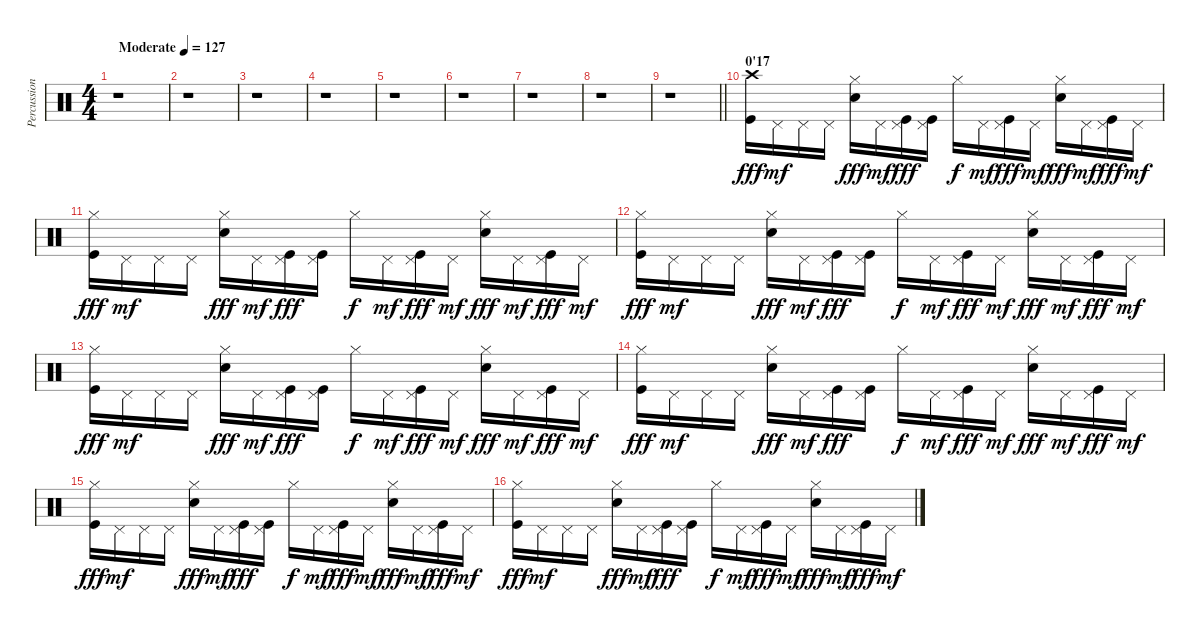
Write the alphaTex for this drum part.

\track ("Percussions" "Percussion") {instrument percussion}
\staff {score}
\articulation defaults
\ts (4 4)
\tempo (127 "Moderate")
\clef neutral
\ks c
r.1{dy fff} |
r.1 |
r.1 |
r.1 |
r.1 |
r.1 |
r.1 |
r.1 |
\barLineRight lightlight
r.1 |
\section ("" "0'17")
("Crash high (hit)" "Kick (hit)").16 "Pedal Hi-Hat (hit)".16{dy mf} "Pedal Hi-Hat (hit)".16 "Pedal Hi-Hat (hit)".16 ("Hi-Hat (closed)" "Electric Snare (hit)").16{dy fff} "Pedal Hi-Hat (hit)".16{dy mf} ("Pedal Hi-Hat (hit)" "Kick (hit)").16{dy fff} ("Pedal Hi-Hat (hit)" "Kick (hit)").16 "Hi-Hat (closed)".16{dy f} "Pedal Hi-Hat (hit)".16{dy mf} ("Pedal Hi-Hat (hit)" "Kick (hit)").16{dy fff} "Pedal Hi-Hat (hit)".16{dy mf} ("Hi-Hat (closed)" "Electric Snare (hit)").16{dy fff} "Pedal Hi-Hat (hit)".16{dy mf} ("Pedal Hi-Hat (hit)" "Kick (hit)").16{dy fff} "Pedal Hi-Hat (hit)".16{dy mf} |
("Hi-Hat (closed)" "Kick (hit)").16{dy fff} "Pedal Hi-Hat (hit)".16{dy mf} "Pedal Hi-Hat (hit)".16 "Pedal Hi-Hat (hit)".16 ("Hi-Hat (closed)" "Electric Snare (hit)").16{dy fff} "Pedal Hi-Hat (hit)".16{dy mf} ("Pedal Hi-Hat (hit)" "Kick (hit)").16{dy fff} ("Pedal Hi-Hat (hit)" "Kick (hit)").16 "Hi-Hat (closed)".16{dy f} "Pedal Hi-Hat (hit)".16{dy mf} ("Pedal Hi-Hat (hit)" "Kick (hit)").16{dy fff} "Pedal Hi-Hat (hit)".16{dy mf} ("Hi-Hat (closed)" "Electric Snare (hit)").16{dy fff} "Pedal Hi-Hat (hit)".16{dy mf} ("Pedal Hi-Hat (hit)" "Kick (hit)").16{dy fff} "Pedal Hi-Hat (hit)".16{dy mf} |
("Hi-Hat (closed)" "Kick (hit)").16{dy fff} "Pedal Hi-Hat (hit)".16{dy mf} "Pedal Hi-Hat (hit)".16 "Pedal Hi-Hat (hit)".16 ("Hi-Hat (closed)" "Electric Snare (hit)").16{dy fff} "Pedal Hi-Hat (hit)".16{dy mf} ("Pedal Hi-Hat (hit)" "Kick (hit)").16{dy fff} ("Pedal Hi-Hat (hit)" "Kick (hit)").16 "Hi-Hat (closed)".16{dy f} "Pedal Hi-Hat (hit)".16{dy mf} ("Pedal Hi-Hat (hit)" "Kick (hit)").16{dy fff} "Pedal Hi-Hat (hit)".16{dy mf} ("Hi-Hat (closed)" "Electric Snare (hit)").16{dy fff} "Pedal Hi-Hat (hit)".16{dy mf} ("Pedal Hi-Hat (hit)" "Kick (hit)").16{dy fff} "Pedal Hi-Hat (hit)".16{dy mf} |
("Hi-Hat (closed)" "Kick (hit)").16{dy fff} "Pedal Hi-Hat (hit)".16{dy mf} "Pedal Hi-Hat (hit)".16 "Pedal Hi-Hat (hit)".16 ("Hi-Hat (closed)" "Electric Snare (hit)").16{dy fff} "Pedal Hi-Hat (hit)".16{dy mf} ("Pedal Hi-Hat (hit)" "Kick (hit)").16{dy fff} ("Pedal Hi-Hat (hit)" "Kick (hit)").16 "Hi-Hat (closed)".16{dy f} "Pedal Hi-Hat (hit)".16{dy mf} ("Pedal Hi-Hat (hit)" "Kick (hit)").16{dy fff} "Pedal Hi-Hat (hit)".16{dy mf} ("Hi-Hat (closed)" "Electric Snare (hit)").16{dy fff} "Pedal Hi-Hat (hit)".16{dy mf} ("Pedal Hi-Hat (hit)" "Kick (hit)").16{dy fff} "Pedal Hi-Hat (hit)".16{dy mf} |
("Hi-Hat (closed)" "Kick (hit)").16{dy fff} "Pedal Hi-Hat (hit)".16{dy mf} "Pedal Hi-Hat (hit)".16 "Pedal Hi-Hat (hit)".16 ("Hi-Hat (closed)" "Electric Snare (hit)").16{dy fff} "Pedal Hi-Hat (hit)".16{dy mf} ("Pedal Hi-Hat (hit)" "Kick (hit)").16{dy fff} ("Pedal Hi-Hat (hit)" "Kick (hit)").16 "Hi-Hat (closed)".16{dy f} "Pedal Hi-Hat (hit)".16{dy mf} ("Pedal Hi-Hat (hit)" "Kick (hit)").16{dy fff} "Pedal Hi-Hat (hit)".16{dy mf} ("Hi-Hat (closed)" "Electric Snare (hit)").16{dy fff} "Pedal Hi-Hat (hit)".16{dy mf} ("Pedal Hi-Hat (hit)" "Kick (hit)").16{dy fff} "Pedal Hi-Hat (hit)".16{dy mf} |
("Hi-Hat (closed)" "Kick (hit)").16{dy fff} "Pedal Hi-Hat (hit)".16{dy mf} "Pedal Hi-Hat (hit)".16 "Pedal Hi-Hat (hit)".16 ("Hi-Hat (closed)" "Electric Snare (hit)").16{dy fff} "Pedal Hi-Hat (hit)".16{dy mf} ("Pedal Hi-Hat (hit)" "Kick (hit)").16{dy fff} ("Pedal Hi-Hat (hit)" "Kick (hit)").16 "Hi-Hat (closed)".16{dy f} "Pedal Hi-Hat (hit)".16{dy mf} ("Pedal Hi-Hat (hit)" "Kick (hit)").16{dy fff} "Pedal Hi-Hat (hit)".16{dy mf} ("Hi-Hat (closed)" "Electric Snare (hit)").16{dy fff} "Pedal Hi-Hat (hit)".16{dy mf} ("Pedal Hi-Hat (hit)" "Kick (hit)").16{dy fff} "Pedal Hi-Hat (hit)".16{dy mf} |
("Hi-Hat (closed)" "Kick (hit)").16{dy fff} "Pedal Hi-Hat (hit)".16{dy mf} "Pedal Hi-Hat (hit)".16 "Pedal Hi-Hat (hit)".16 ("Hi-Hat (closed)" "Electric Snare (hit)").16{dy fff} "Pedal Hi-Hat (hit)".16{dy mf} ("Pedal Hi-Hat (hit)" "Kick (hit)").16{dy fff} ("Pedal Hi-Hat (hit)" "Kick (hit)").16 "Hi-Hat (closed)".16{dy f} "Pedal Hi-Hat (hit)".16{dy mf} ("Pedal Hi-Hat (hit)" "Kick (hit)").16{dy fff} "Pedal Hi-Hat (hit)".16{dy mf} ("Hi-Hat (closed)" "Electric Snare (hit)").16{dy fff} "Pedal Hi-Hat (hit)".16{dy mf} ("Pedal Hi-Hat (hit)" "Kick (hit)").16{dy fff} "Pedal Hi-Hat (hit)".16{dy mf}
